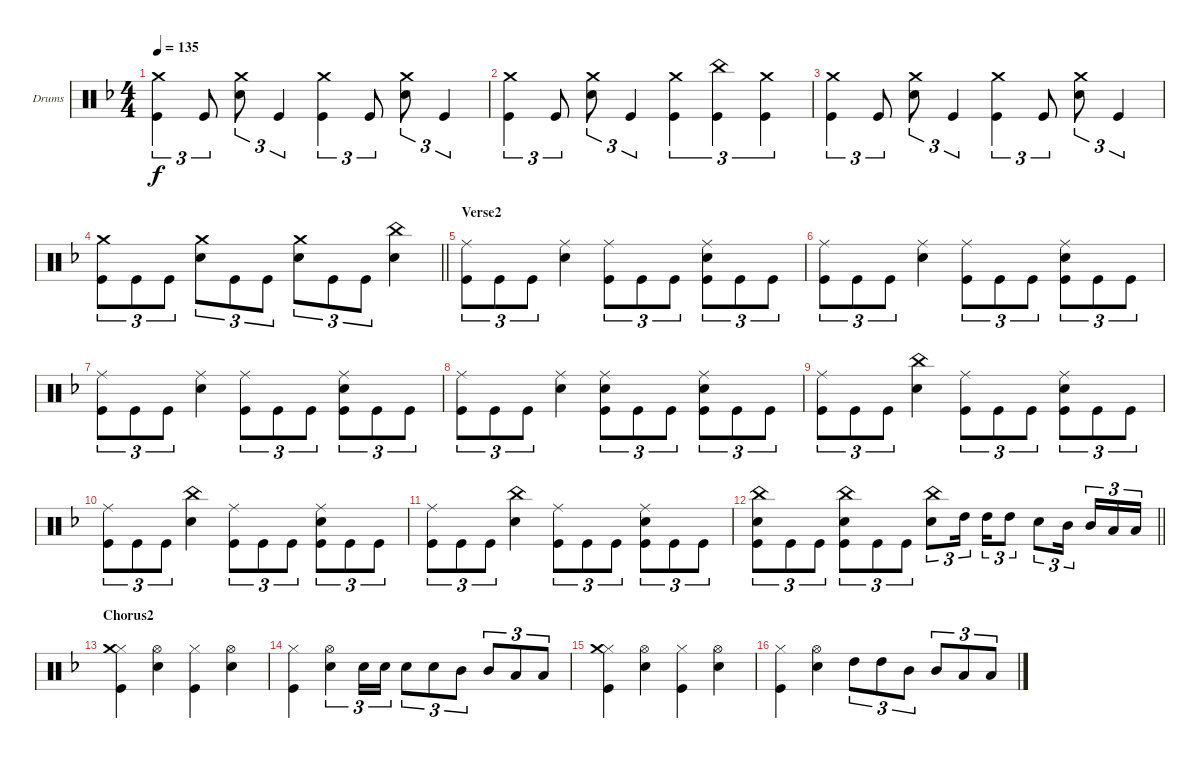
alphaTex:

\bracketExtendMode groupsimilarinstruments
\firstSystemTrackNameOrientation horizontal
\otherSystemsTrackNameOrientation horizontal
\track ("drums (Anton Zulganov)" "Drums") {instrument percussion}
\staff {score}
\articulation defaults
\ts (4 4)
\tempo 135
\clef neutral
\ks dminor
("Crash medium (hit)" "Kick (hit)").4{tu (3 2) dy f} "Kick (hit)".8{tu (3 2)} ("Snare (hit) 2" "Crash medium (hit)").8{tu (3 2)} "Kick (hit)".4{tu (3 2)} ("Kick (hit)" "Crash medium (hit)").4{tu (3 2)} "Kick (hit)".8{tu (3 2)} ("Snare (hit) 2" "Crash medium (hit)").8{tu (3 2)} "Kick (hit)".4{tu (3 2)} |
("Kick (hit)" "Crash medium (hit)").4{tu (3 2)} "Kick (hit)".8{tu (3 2)} ("Snare (hit) 2" "Crash medium (hit)").8{tu (3 2)} "Kick (hit)".4{tu (3 2)} ("Crash medium (hit)" "Kick (hit)").4{tu (3 2)} ("Kick (hit)" "China (hit)").4{tu (3 2)} ("Kick (hit)" "Crash medium (hit)").4{tu (3 2)} |
("Crash medium (hit)" "Kick (hit)").4{tu (3 2)} "Kick (hit)".8{tu (3 2)} ("Snare (hit) 2" "Crash medium (hit)").8{tu (3 2)} "Kick (hit)".4{tu (3 2)} ("Kick (hit)" "Crash medium (hit)").4{tu (3 2)} "Kick (hit)".8{tu (3 2)} ("Snare (hit) 2" "Crash medium (hit)").8{tu (3 2)} "Kick (hit)".4{tu (3 2)} |
\barLineRight lightlight
("Kick (hit)" "Crash medium (hit)").8{tu (3 2)} "Kick (hit)".8{tu (3 2)} "Kick (hit)".8{tu (3 2)} ("Snare (hit) 2" "Crash medium (hit)").8{tu (3 2)} "Kick (hit)".8{tu (3 2)} "Kick (hit)".8{tu (3 2)} ("Snare (hit) 2" "Crash medium (hit)").8{tu (3 2)} "Kick (hit)".8{tu (3 2)} "Kick (hit)".8{tu (3 2)} ("Snare (hit) 2" "China (hit)").4 |
\section ("" "Verse2")
("Kick (hit)" "Ride (middle)").8{tu (3 2)} "Kick (hit)".8{tu (3 2)} "Kick (hit)".8{tu (3 2)} ("Snare (hit) 2" "Ride (middle)").4 ("Kick (hit)" "Ride (middle)").8{tu (3 2)} "Kick (hit)".8{tu (3 2)} "Kick (hit)".8{tu (3 2)} ("Snare (hit) 2" "Kick (hit)" "Ride (middle)").8{tu (3 2)} "Kick (hit)".8{tu (3 2)} "Kick (hit)".8{tu (3 2)} |
("Kick (hit)" "Ride (middle)").8{tu (3 2)} "Kick (hit)".8{tu (3 2)} "Kick (hit)".8{tu (3 2)} ("Snare (hit) 2" "Ride (middle)").4 ("Kick (hit)" "Ride (middle)").8{tu (3 2)} "Kick (hit)".8{tu (3 2)} "Kick (hit)".8{tu (3 2)} ("Snare (hit) 2" "Kick (hit)" "Ride (middle)").8{tu (3 2)} "Kick (hit)".8{tu (3 2)} "Kick (hit)".8{tu (3 2)} |
("Kick (hit)" "Ride (middle)").8{tu (3 2)} "Kick (hit)".8{tu (3 2)} "Kick (hit)".8{tu (3 2)} ("Snare (hit) 2" "Ride (middle)").4 ("Kick (hit)" "Ride (middle)").8{tu (3 2)} "Kick (hit)".8{tu (3 2)} "Kick (hit)".8{tu (3 2)} ("Snare (hit) 2" "Kick (hit)" "Ride (middle)").8{tu (3 2)} "Kick (hit)".8{tu (3 2)} "Kick (hit)".8{tu (3 2)} |
("Kick (hit)" "Ride (middle)").8{tu (3 2)} "Kick (hit)".8{tu (3 2)} "Kick (hit)".8{tu (3 2)} ("Snare (hit) 2" "Ride (middle)").4 ("Kick (hit)" "Ride (middle)" "Snare (hit) 2").8{tu (3 2)} "Kick (hit)".8{tu (3 2)} "Kick (hit)".8{tu (3 2)} ("Snare (hit) 2" "Kick (hit)" "Ride (middle)").8{tu (3 2)} "Kick (hit)".8{tu (3 2)} "Kick (hit)".8{tu (3 2)} |
("Kick (hit)" "Ride (middle)").8{tu (3 2)} "Kick (hit)".8{tu (3 2)} "Kick (hit)".8{tu (3 2)} ("Snare (hit) 2" "China (hit)").4 ("Kick (hit)" "Ride (middle)").8{tu (3 2)} "Kick (hit)".8{tu (3 2)} "Kick (hit)".8{tu (3 2)} ("Snare (hit) 2" "Kick (hit)" "Ride (middle)").8{tu (3 2)} "Kick (hit)".8{tu (3 2)} "Kick (hit)".8{tu (3 2)} |
("Kick (hit)" "Ride (middle)").8{tu (3 2)} "Kick (hit)".8{tu (3 2)} "Kick (hit)".8{tu (3 2)} ("Snare (hit) 2" "China (hit)").4 ("Kick (hit)" "Ride (middle)").8{tu (3 2)} "Kick (hit)".8{tu (3 2)} "Kick (hit)".8{tu (3 2)} ("Snare (hit) 2" "Kick (hit)" "Ride (middle)").8{tu (3 2)} "Kick (hit)".8{tu (3 2)} "Kick (hit)".8{tu (3 2)} |
("Kick (hit)" "Ride (middle)").8{tu (3 2)} "Kick (hit)".8{tu (3 2)} "Kick (hit)".8{tu (3 2)} ("Snare (hit) 2" "China (hit)").4 ("Kick (hit)" "Ride (middle)").8{tu (3 2)} "Kick (hit)".8{tu (3 2)} "Kick (hit)".8{tu (3 2)} ("Snare (hit) 2" "Kick (hit)" "Ride (middle)").8{tu (3 2)} "Kick (hit)".8{tu (3 2)} "Kick (hit)".8{tu (3 2)} |
\barLineRight lightlight
("Kick (hit)" "Snare (hit) 2" "China (hit)").8{tu (3 2)} "Kick (hit)".8{tu (3 2)} "Kick (hit)".8{tu (3 2)} ("Kick (hit)" "Snare (hit) 2" "China (hit)").8{tu (3 2)} "Kick (hit)".8{tu (3 2)} "Kick (hit)".8{tu (3 2)} ("Snare (hit) 2" "China (hit)").8{tu (3 2)} "High Tom (hit)".16{tu (3 2)} "High Tom (hit)".16{tu (3 2)} "High Tom (hit)".8{tu (3 2)} "Snare (hit) 2".8{tu (3 2)} "Mid Tom (hit)".16{tu (3 2)} "Mid Tom (hit)".16{tu (3 2)} "Low Tom (hit)".16{tu (3 2)} "Low Tom (hit)".16{tu (3 2)} |
\section ("" "Chorus2")
("Hi-Hat (closed)" "Kick (hit)" "Crash medium (hit)").4 ("Hi-Hat (open)" "Snare (hit) 2").4 ("Hi-Hat (closed)" "Kick (hit)").4 ("Hi-Hat (open)" "Snare (hit) 2").4 |
("Hi-Hat (closed)" "Kick (hit)").4 ("Hi-Hat (open)" "Snare (hit) 2").4{tu (3 2)} "Snare (hit) 2".16{tu (3 2)} "Snare (hit) 2".16{tu (3 2)} "Snare (hit) 2".8{tu (3 2)} "Snare (hit) 2".8{tu (3 2)} "Mid Tom (hit)".8{tu (3 2)} "Mid Tom (hit)".8{tu (3 2)} "Low Tom (hit)".8{tu (3 2)} "Low Tom (hit)".8{tu (3 2)} |
("Hi-Hat (closed)" "Kick (hit)" "Crash medium (hit)").4 ("Hi-Hat (open)" "Snare (hit) 2").4 ("Hi-Hat (closed)" "Kick (hit)").4 ("Hi-Hat (open)" "Snare (hit) 2").4 |
("Hi-Hat (closed)" "Kick (hit)").4 ("Hi-Hat (open)" "Snare (hit) 2").4 "High Tom (hit)".8{tu (3 2)} "High Tom (hit)".8{tu (3 2)} "Mid Tom (hit)".8{tu (3 2)} "Mid Tom (hit)".8{tu (3 2)} "Low Tom (hit)".8{tu (3 2)} "Low Tom (hit)".8{tu (3 2)}
